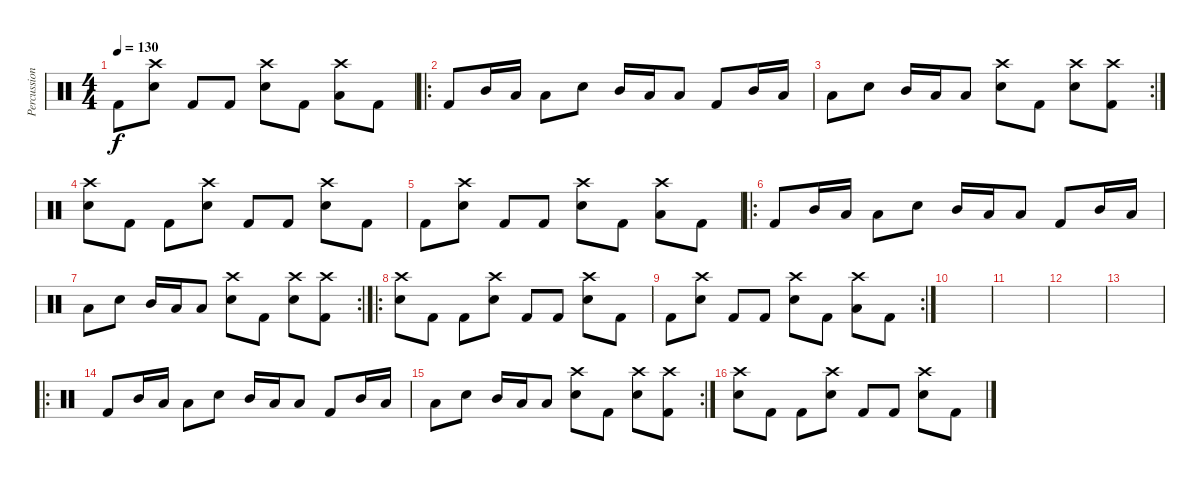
\track ("Percussion" "Percussion") {instrument percussion}
\staff {score}
\articulation defaults
\ts (4 4)
\tempo 130
\clef neutral
\ks c "Kick (hit) 2".8{dy f}
("Crash high (hit)" "Electric Snare (hit)").8 "Kick (hit) 2".8 "Kick (hit) 2".8 ("Crash high (hit)" "Electric Snare (hit)").8 "Kick (hit) 2".8 ("Crash high (hit)" "Low Floor Tom (hit)").8 "Kick (hit) 2".8 |
\ro "Kick (hit) 2".8 "Mid Tom (hit)".16 "Low Tom (hit)".16 "Low Floor Tom (hit)".8 "Electric Snare (hit)".8 "Mid Tom (hit)".16 "Low Tom (hit)".16 "Low Floor Tom (hit)".8 "Kick (hit) 2".8 "Mid Tom (hit)".16 "Low Tom (hit)".16
|
\rc 2 "Low Floor Tom (hit)".8 "Electric Snare (hit)".8 "Mid Tom (hit)".16 "Low Tom (hit)".16 "Low Floor Tom (hit)".8
("Crash high (hit)" "Electric Snare (hit)").8 "Kick (hit) 2".8 ("Crash high (hit)" "Electric Snare (hit)").8 ("Crash high (hit)" "Kick (hit) 2").8 |
("Crash high (hit)" "Electric Snare (hit)").8 "Kick (hit) 2".8 "Kick (hit) 2".8 ("Crash high (hit)" "Electric Snare (hit)").8 "Kick (hit) 2".8 "Kick (hit) 2".8 ("Crash high (hit)" "Electric Snare (hit)").8 "Kick (hit) 2".8 |
"Kick (hit) 2".8 ("Crash high (hit)" "Electric Snare (hit)").8 "Kick (hit) 2".8 "Kick (hit) 2".8 ("Crash high (hit)" "Electric Snare (hit)").8 "Kick (hit) 2".8 ("Crash high (hit)" "Low Floor Tom (hit)").8 "Kick (hit) 2".8 |
\ro "Kick (hit) 2".8 "Mid Tom (hit)".16 "Low Tom (hit)".16 "Low Floor Tom (hit)".8 "Electric Snare (hit)".8 "Mid Tom (hit)".16 "Low Tom (hit)".16 "Low Floor Tom (hit)".8 "Kick (hit) 2".8 "Mid Tom (hit)".16 "Low Tom (hit)".16
|
\rc 2 "Low Floor Tom (hit)".8 "Electric Snare (hit)".8 "Mid Tom (hit)".16 "Low Tom (hit)".16 "Low Floor Tom (hit)".8
("Crash high (hit)" "Electric Snare (hit)").8 "Kick (hit) 2".8 ("Crash high (hit)" "Electric Snare (hit)").8 ("Crash high (hit)" "Kick (hit) 2").8 |
\ro
("Crash high (hit)" "Electric Snare (hit)").8 "Kick (hit) 2".8 "Kick (hit) 2".8 ("Crash high (hit)" "Electric Snare (hit)").8 "Kick (hit) 2".8 "Kick (hit) 2".8 ("Crash high (hit)" "Electric Snare (hit)").8 "Kick (hit) 2".8 |
\rc 2 "Kick (hit) 2".8
("Crash high (hit)" "Electric Snare (hit)").8 "Kick (hit) 2".8 "Kick (hit) 2".8 ("Crash high (hit)" "Electric Snare (hit)").8 "Kick (hit) 2".8 ("Crash high (hit)" "Low Floor Tom (hit)").8 "Kick (hit) 2".8 |
|
|
|
|
\ro "Kick (hit) 2".8 "Mid Tom (hit)".16 "Low Tom (hit)".16 "Low Floor Tom (hit)".8 "Electric Snare (hit)".8 "Mid Tom (hit)".16 "Low Tom (hit)".16 "Low Floor Tom (hit)".8 "Kick (hit) 2".8 "Mid Tom (hit)".16 "Low Tom (hit)".16
|
\rc 2 "Low Floor Tom (hit)".8 "Electric Snare (hit)".8 "Mid Tom (hit)".16 "Low Tom (hit)".16 "Low Floor Tom (hit)".8
("Crash high (hit)" "Electric Snare (hit)").8 "Kick (hit) 2".8 ("Crash high (hit)" "Electric Snare (hit)").8 ("Crash high (hit)" "Kick (hit) 2").8 |
("Crash high (hit)" "Electric Snare (hit)").8 "Kick (hit) 2".8 "Kick (hit) 2".8 ("Crash high (hit)" "Electric Snare (hit)").8 "Kick (hit) 2".8 "Kick (hit) 2".8 ("Crash high (hit)" "Electric Snare (hit)").8 "Kick (hit) 2".8
